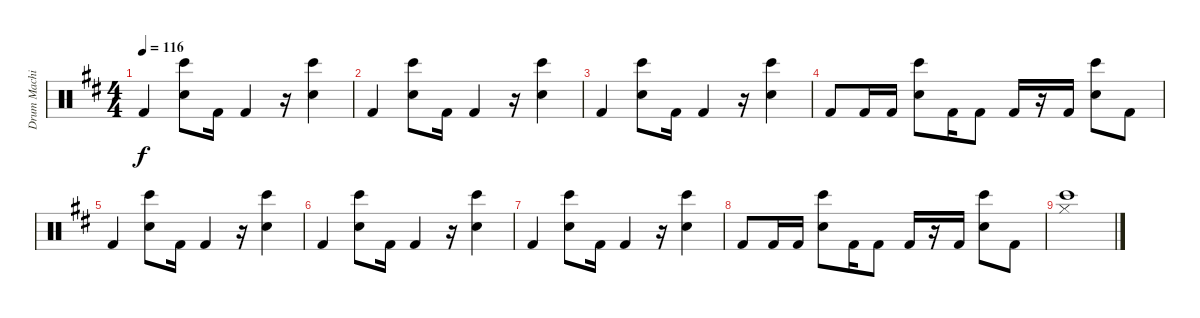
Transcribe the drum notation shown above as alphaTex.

\track ("Drum Machine" "Drum Machi") {instrument percussion}
\staff {score}
\articulation defaults
\ts (4 4)
\tempo 116
\clef neutral
\ks bminor "Kick (hit) 2".4{dy f}
("Bongo High (hit)" "Electric Snare (hit)").8 "Kick (hit) 2".16 "Kick (hit) 2".4 r.16 ("Bongo High (hit)" "Electric Snare (hit)").4 |
"Kick (hit) 2".4 ("Bongo High (hit)" "Electric Snare (hit)").8 "Kick (hit) 2".16 "Kick (hit) 2".4 r.16 ("Bongo High (hit)" "Electric Snare (hit)").4 |
"Kick (hit) 2".4 ("Bongo High (hit)" "Electric Snare (hit)").8 "Kick (hit) 2".16 "Kick (hit) 2".4 r.16 ("Bongo High (hit)" "Electric Snare (hit)").4 |
"Kick (hit) 2".8 "Kick (hit) 2".16 "Kick (hit) 2".16 ("Bongo High (hit)" "Electric Snare (hit)").8 "Kick (hit) 2".16 "Kick (hit) 2".8 "Kick (hit) 2".16 r.16 "Kick (hit) 2".16 ("Bongo High (hit)" "Electric Snare (hit)").8 "Kick (hit) 2".8 |
"Kick (hit) 2".4 ("Bongo High (hit)" "Electric Snare (hit)").8 "Kick (hit) 2".16 "Kick (hit) 2".4 r.16 ("Bongo High (hit)" "Electric Snare (hit)").4 |
"Kick (hit) 2".4 ("Bongo High (hit)" "Electric Snare (hit)").8 "Kick (hit) 2".16 "Kick (hit) 2".4 r.16 ("Bongo High (hit)" "Electric Snare (hit)").4 |
"Kick (hit) 2".4 ("Bongo High (hit)" "Electric Snare (hit)").8 "Kick (hit) 2".16 "Kick (hit) 2".4 r.16 ("Bongo High (hit)" "Electric Snare (hit)").4 |
"Kick (hit) 2".8 "Kick (hit) 2".16 "Kick (hit) 2".16 ("Bongo High (hit)" "Electric Snare (hit)").8 "Kick (hit) 2".16 "Kick (hit) 2".8 "Kick (hit) 2".16 r.16 "Kick (hit) 2".16 ("Bongo High (hit)" "Electric Snare (hit)").8 "Kick (hit) 2".8 |
("Hi-Hat (closed)" "Bongo High (hit)").1
